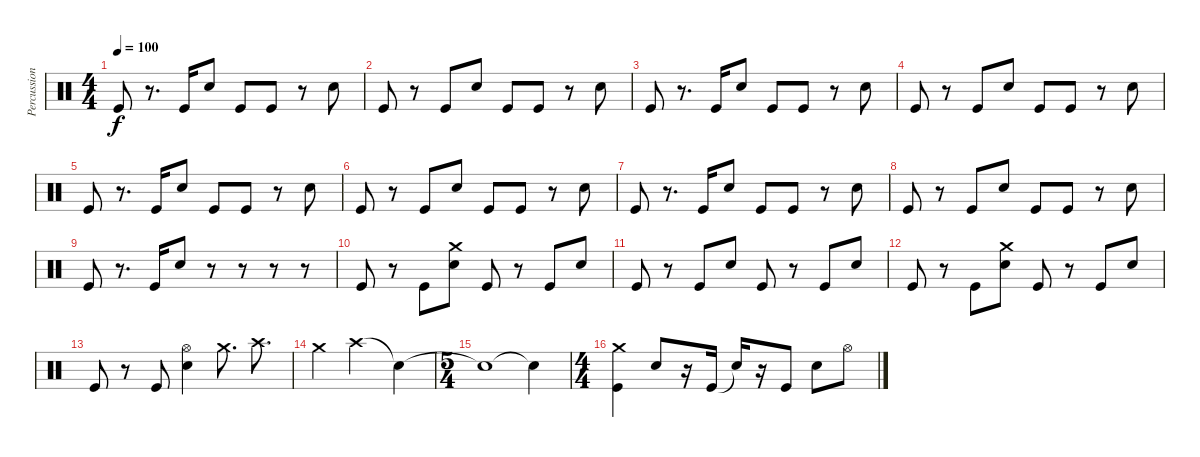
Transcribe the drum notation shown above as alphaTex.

\track ("Percussion" "Percussion") {instrument percussion}
\staff {score}
\articulation defaults
\ts (4 4)
\tempo 100
\clef neutral
\ks c "Kick (hit)".8{dy f}
r.8{d} "Kick (hit)".16 "Electric Snare (hit)".8 "Kick (hit)".8 "Kick (hit)".8 r.8 "Electric Snare (hit)".8 |
"Kick (hit)".8 r.8 "Kick (hit)".8 "Electric Snare (hit)".8 "Kick (hit)".8 "Kick (hit)".8 r.8 "Electric Snare (hit)".8 |
"Kick (hit)".8 r.8{d} "Kick (hit)".16 "Electric Snare (hit)".8 "Kick (hit)".8 "Kick (hit)".8 r.8 "Electric Snare (hit)".8 |
"Kick (hit)".8 r.8 "Kick (hit)".8 "Electric Snare (hit)".8 "Kick (hit)".8 "Kick (hit)".8 r.8 "Electric Snare (hit)".8 |
"Kick (hit)".8 r.8{d} "Kick (hit)".16 "Electric Snare (hit)".8 "Kick (hit)".8 "Kick (hit)".8 r.8 "Electric Snare (hit)".8 |
"Kick (hit)".8 r.8 "Kick (hit)".8 "Electric Snare (hit)".8 "Kick (hit)".8 "Kick (hit)".8 r.8 "Electric Snare (hit)".8 |
"Kick (hit)".8 r.8{d} "Kick (hit)".16 "Electric Snare (hit)".8 "Kick (hit)".8 "Kick (hit)".8 r.8 "Electric Snare (hit)".8 |
"Kick (hit)".8 r.8 "Kick (hit)".8 "Electric Snare (hit)".8 "Kick (hit)".8 "Kick (hit)".8 r.8 "Electric Snare (hit)".8 |
"Kick (hit)".8 r.8{d} "Kick (hit)".16 "Electric Snare (hit)".8 r.8 r.8 r.8 r.8 |
"Kick (hit)".8 r.8 "Kick (hit)".8 ("Crash medium (hit)" "Electric Snare (hit)").8 "Kick (hit)".8 r.8 "Kick (hit)".8 "Electric Snare (hit)".8 |
"Kick (hit)".8 r.8 "Kick (hit)".8 "Electric Snare (hit)".8 "Kick (hit)".8 r.8 "Kick (hit)".8 "Electric Snare (hit)".8 |
"Kick (hit)".8 r.8 "Kick (hit)".8 ("Crash medium (hit)" "Electric Snare (hit)").8 "Kick (hit)".8 r.8 "Kick (hit)".8 "Electric Snare (hit)".8 |
"Kick (hit)".8 r.8 "Kick (hit)".8 ("Hi-Hat (open)" "Electric Snare (hit)").4 "Crash medium (hit)".8{d} "Crash high (hit)".8{d} |
"Crash medium (hit)".4 "Crash high (hit)".2 "Snare (hit)"{t}.4 |
\ts (5 4)
"Snare (hit)"{t}.1 "Snare (hit)"{t}.4 |
\ts (4 4)
("Crash medium (hit)" "Kick (hit)").4 "Electric Snare (hit)".8 r.16 "Kick (hit)".16 "Snare (hit)"{t}.16 r.16 "Kick (hit)".8 "Electric Snare (hit)".8 "Hi-Hat (open)".8
